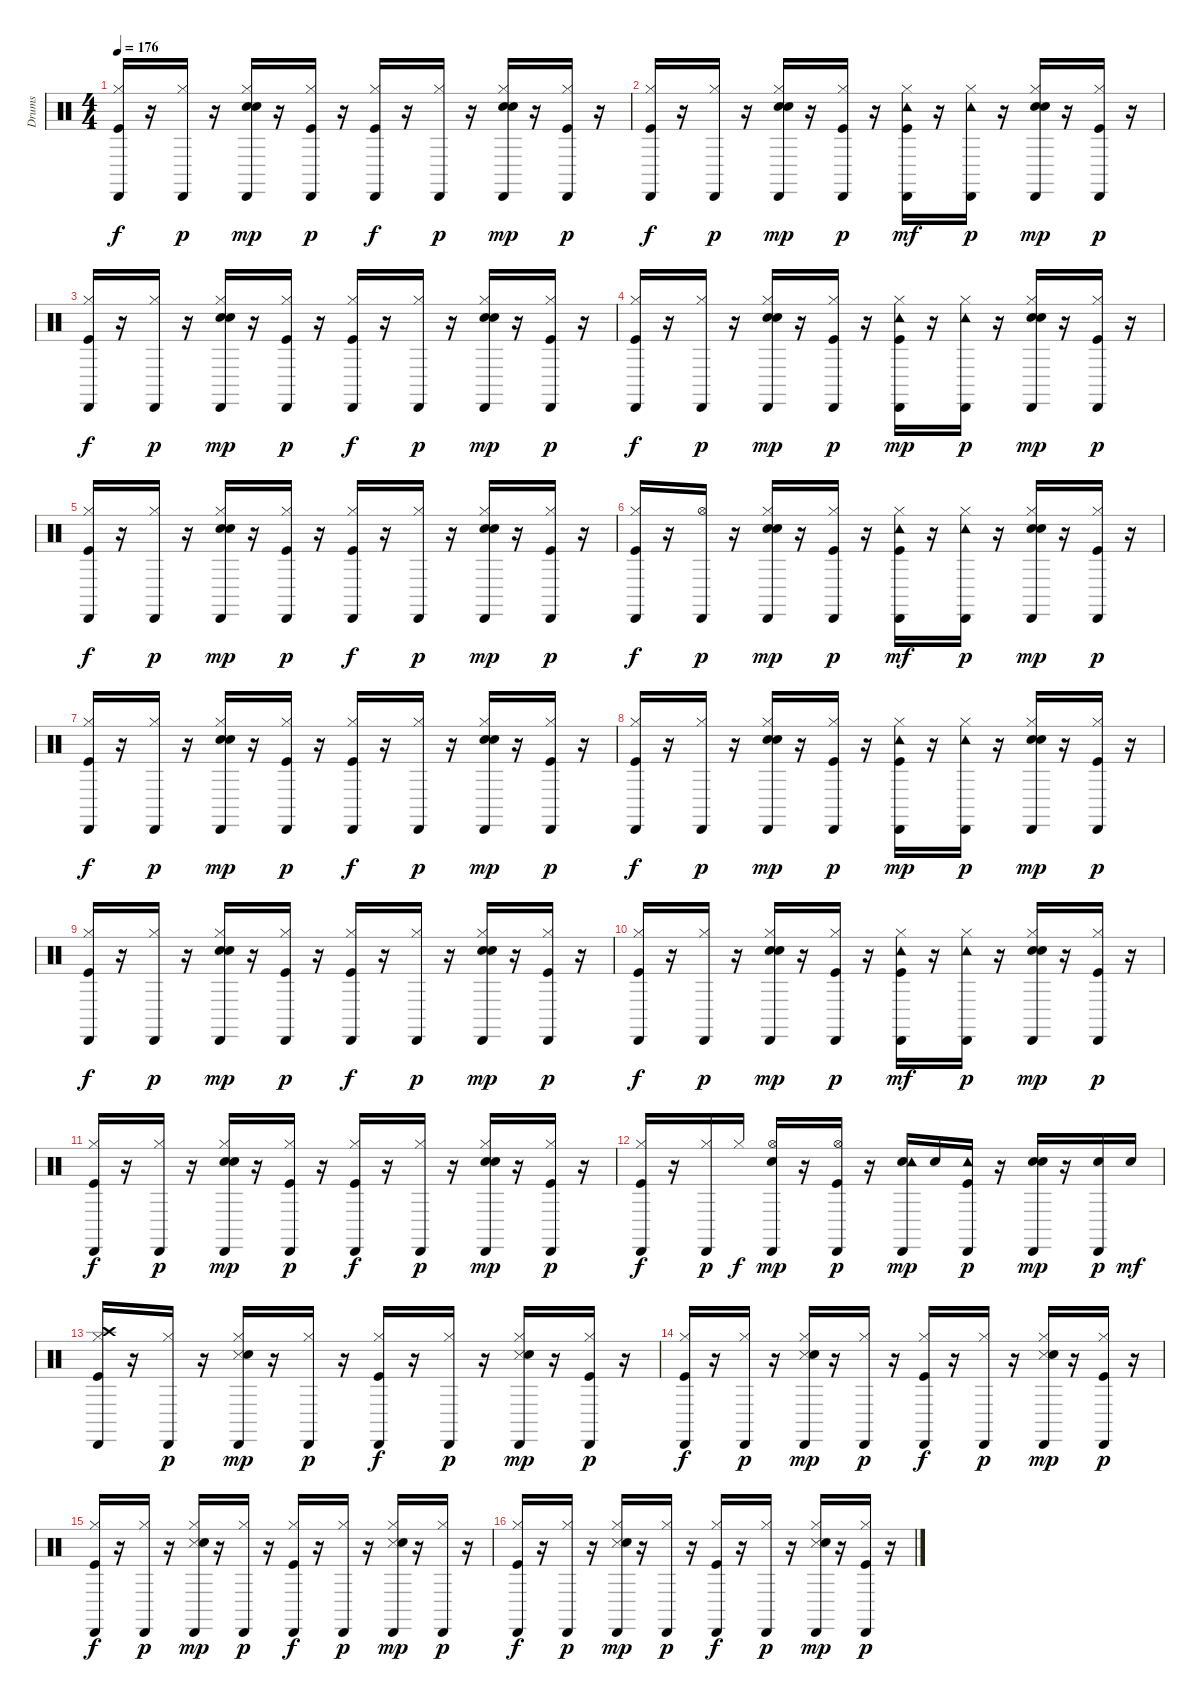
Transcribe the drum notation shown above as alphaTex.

\track ("Drums" "Drums") {instrument percussion}
\staff {score}
\articulation defaults
\ts (4 4)
\tempo 176
\clef neutral
\ks c
("Kick (hit)" "Hi-Hat (closed)" "Cabasa (hit)").16{dy f} r.16 ("Hi-Hat (closed)" "Cabasa (hit)").16{dy p} r.16 ("Snare (hit) 2" "Hi-Hat (closed)" "Hand Clap (hit)" "Cabasa (hit)").16{dy mp} r.16 ("Kick (hit)" "Hi-Hat (closed)" "Cabasa (hit)").16{dy p} r.16 ("Kick (hit)" "Hi-Hat (closed)" "Cabasa (hit)").16{dy f} r.16 ("Hi-Hat (closed)" "Cabasa (hit)").16{dy p} r.16 ("Snare (hit) 2" "Hi-Hat (closed)" "Hand Clap (hit)" "Cabasa (hit)").16{dy mp} r.16 ("Kick (hit)" "Hi-Hat (closed)" "Cabasa (hit)").16{dy p} r.16 |
("Kick (hit)" "Hi-Hat (closed)" "Cabasa (hit)").16{dy f} r.16 ("Hi-Hat (closed)" "Cabasa (hit)").16{dy p} r.16 ("Snare (hit) 2" "Hi-Hat (closed)" "Hand Clap (hit)" "Cabasa (hit)").16{dy mp} r.16 ("Kick (hit)" "Hi-Hat (closed)" "Cabasa (hit)").16{dy p} r.16 ("Kick (hit)" "Hi-Hat (closed)" "Tambourine (hit)" "Cabasa (hit)").16{dy mf} r.16 ("Hi-Hat (closed)" "Tambourine (hit)" "Cabasa (hit)").16{dy p} r.16 ("Snare (hit) 2" "Hi-Hat (closed)" "Hand Clap (hit)" "Cabasa (hit)").16{dy mp} r.16 ("Kick (hit)" "Hi-Hat (closed)" "Cabasa (hit)").16{dy p} r.16 |
("Kick (hit)" "Hi-Hat (closed)" "Cabasa (hit)").16{dy f} r.16 ("Hi-Hat (closed)" "Cabasa (hit)").16{dy p} r.16 ("Snare (hit) 2" "Hi-Hat (closed)" "Hand Clap (hit)" "Cabasa (hit)").16{dy mp} r.16 ("Kick (hit)" "Hi-Hat (closed)" "Cabasa (hit)").16{dy p} r.16 ("Kick (hit)" "Hi-Hat (closed)" "Cabasa (hit)").16{dy f} r.16 ("Hi-Hat (closed)" "Cabasa (hit)").16{dy p} r.16 ("Snare (hit) 2" "Hi-Hat (closed)" "Hand Clap (hit)" "Cabasa (hit)").16{dy mp} r.16 ("Kick (hit)" "Hi-Hat (closed)" "Cabasa (hit)").16{dy p} r.16 |
("Kick (hit)" "Hi-Hat (closed)" "Cabasa (hit)").16{dy f} r.16 ("Hi-Hat (closed)" "Cabasa (hit)").16{dy p} r.16 ("Snare (hit) 2" "Hi-Hat (closed)" "Hand Clap (hit)" "Cabasa (hit)").16{dy mp} r.16 ("Kick (hit)" "Hi-Hat (closed)" "Cabasa (hit)").16{dy p} r.16 ("Kick (hit)" "Hi-Hat (closed)" "Tambourine (hit)" "Cabasa (hit)").16{dy mp} r.16 ("Hi-Hat (closed)" "Tambourine (hit)" "Cabasa (hit)").16{dy p} r.16 ("Snare (hit) 2" "Hi-Hat (closed)" "Hand Clap (hit)" "Cabasa (hit)").16{dy mp} r.16 ("Kick (hit)" "Hi-Hat (closed)" "Cabasa (hit)").16{dy p} r.16 |
("Kick (hit)" "Hi-Hat (closed)" "Cabasa (hit)").16{dy f} r.16 ("Hi-Hat (closed)" "Cabasa (hit)").16{dy p} r.16 ("Snare (hit) 2" "Hi-Hat (closed)" "Hand Clap (hit)" "Cabasa (hit)").16{dy mp} r.16 ("Kick (hit)" "Hi-Hat (closed)" "Cabasa (hit)").16{dy p} r.16 ("Kick (hit)" "Hi-Hat (closed)" "Cabasa (hit)").16{dy f} r.16 ("Hi-Hat (closed)" "Cabasa (hit)").16{dy p} r.16 ("Snare (hit) 2" "Hi-Hat (closed)" "Hand Clap (hit)" "Cabasa (hit)").16{dy mp} r.16 ("Kick (hit)" "Hi-Hat (closed)" "Cabasa (hit)").16{dy p} r.16 |
("Kick (hit)" "Hi-Hat (closed)" "Cabasa (hit)").16{dy f} r.16 ("Hi-Hat (open)" "Cabasa (hit)").16{dy p} r.16 ("Snare (hit) 2" "Hi-Hat (closed)" "Hand Clap (hit)" "Cabasa (hit)").16{dy mp} r.16 ("Kick (hit)" "Hi-Hat (closed)" "Cabasa (hit)").16{dy p} r.16 ("Kick (hit)" "Hi-Hat (closed)" "Tambourine (hit)" "Cabasa (hit)").16{dy mf} r.16 ("Hi-Hat (closed)" "Tambourine (hit)" "Cabasa (hit)").16{dy p} r.16 ("Snare (hit) 2" "Hi-Hat (closed)" "Hand Clap (hit)" "Cabasa (hit)").16{dy mp} r.16 ("Kick (hit)" "Hi-Hat (closed)" "Cabasa (hit)").16{dy p} r.16 |
("Kick (hit)" "Hi-Hat (closed)" "Cabasa (hit)").16{dy f} r.16 ("Hi-Hat (closed)" "Cabasa (hit)").16{dy p} r.16 ("Snare (hit) 2" "Hi-Hat (closed)" "Hand Clap (hit)" "Cabasa (hit)").16{dy mp} r.16 ("Kick (hit)" "Hi-Hat (closed)" "Cabasa (hit)").16{dy p} r.16 ("Kick (hit)" "Hi-Hat (closed)" "Cabasa (hit)").16{dy f} r.16 ("Hi-Hat (closed)" "Cabasa (hit)").16{dy p} r.16 ("Snare (hit) 2" "Hi-Hat (closed)" "Hand Clap (hit)" "Cabasa (hit)").16{dy mp} r.16 ("Kick (hit)" "Hi-Hat (closed)" "Cabasa (hit)").16{dy p} r.16 |
("Kick (hit)" "Hi-Hat (closed)" "Cabasa (hit)").16{dy f} r.16 ("Hi-Hat (closed)" "Cabasa (hit)").16{dy p} r.16 ("Snare (hit) 2" "Hi-Hat (closed)" "Hand Clap (hit)" "Cabasa (hit)").16{dy mp} r.16 ("Kick (hit)" "Hi-Hat (closed)" "Cabasa (hit)").16{dy p} r.16 ("Kick (hit)" "Hi-Hat (closed)" "Tambourine (hit)" "Cabasa (hit)").16{dy mp} r.16 ("Hi-Hat (closed)" "Tambourine (hit)" "Cabasa (hit)").16{dy p} r.16 ("Snare (hit) 2" "Hi-Hat (closed)" "Hand Clap (hit)" "Cabasa (hit)").16{dy mp} r.16 ("Kick (hit)" "Hi-Hat (closed)" "Cabasa (hit)").16{dy p} r.16 |
("Kick (hit)" "Hi-Hat (closed)" "Cabasa (hit)").16{dy f} r.16 ("Hi-Hat (closed)" "Cabasa (hit)").16{dy p} r.16 ("Snare (hit) 2" "Hi-Hat (closed)" "Hand Clap (hit)" "Cabasa (hit)").16{dy mp} r.16 ("Kick (hit)" "Hi-Hat (closed)" "Cabasa (hit)").16{dy p} r.16 ("Kick (hit)" "Hi-Hat (closed)" "Cabasa (hit)").16{dy f} r.16 ("Hi-Hat (closed)" "Cabasa (hit)").16{dy p} r.16 ("Snare (hit) 2" "Hi-Hat (closed)" "Hand Clap (hit)" "Cabasa (hit)").16{dy mp} r.16 ("Kick (hit)" "Hi-Hat (closed)" "Cabasa (hit)").16{dy p} r.16 |
("Kick (hit)" "Hi-Hat (closed)" "Cabasa (hit)").16{dy f} r.16 ("Hi-Hat (closed)" "Cabasa (hit)").16{dy p} r.16 ("Snare (hit) 2" "Hi-Hat (closed)" "Hand Clap (hit)" "Cabasa (hit)").16{dy mp} r.16 ("Kick (hit)" "Hi-Hat (closed)" "Cabasa (hit)").16{dy p} r.16 ("Kick (hit)" "Hi-Hat (closed)" "Tambourine (hit)" "Cabasa (hit)").16{dy mf} r.16 ("Hi-Hat (closed)" "Tambourine (hit)" "Cabasa (hit)").16{dy p} r.16 ("Snare (hit) 2" "Hi-Hat (closed)" "Hand Clap (hit)" "Cabasa (hit)").16{dy mp} r.16 ("Kick (hit)" "Hi-Hat (closed)" "Cabasa (hit)").16{dy p} r.16 |
("Kick (hit)" "Hi-Hat (closed)" "Cabasa (hit)").16{dy f} r.16 ("Hi-Hat (closed)" "Cabasa (hit)").16{dy p} r.16 ("Snare (hit) 2" "Hi-Hat (closed)" "Hand Clap (hit)" "Cabasa (hit)").16{dy mp} r.16 ("Kick (hit)" "Hi-Hat (closed)" "Cabasa (hit)").16{dy p} r.16 ("Kick (hit)" "Hi-Hat (closed)" "Cabasa (hit)").16{dy f} r.16 ("Hi-Hat (closed)" "Cabasa (hit)").16{dy p} r.16 ("Snare (hit) 2" "Hi-Hat (closed)" "Hand Clap (hit)" "Cabasa (hit)").16{dy mp} r.16 ("Kick (hit)" "Hi-Hat (closed)" "Cabasa (hit)").16{dy p} r.16 |
("Kick (hit)" "Hi-Hat (closed)" "Cabasa (hit)").16{dy f} r.16 ("Hi-Hat (closed)" "Cabasa (hit)").16{dy p} "Hi-Hat (closed)".16{dy f} ("Hi-Hat (open)" "Hand Clap (hit)" "Cabasa (hit)").16{dy mp} r.16 ("Kick (hit)" "Hi-Hat (open)" "Cabasa (hit)").16{dy p} r.16 ("Snare (hit) 2" "Tambourine (hit)" "Cabasa (hit)").16{dy mp} "Snare (hit) 2".16 ("Kick (hit)" "Tambourine (hit)" "Cabasa (hit)").16{dy p} r.16 ("Snare (hit) 2" "Hand Clap (hit)" "Cabasa (hit)").16{dy mp} r.16 ("Snare (hit) 2" "Cabasa (hit)").16{dy p} "Snare (hit) 2".16{dy mf} |
("Kick (hit)" "Hi-Hat (closed)" "Crash high (hit)" "Cabasa (hit)").16 r.16 ("Hi-Hat (closed)" "Cabasa (hit)").16{dy p} r.16 ("Hi-Hat (closed)" "Snare (side stick) 3" "Hand Clap (hit)" "Cabasa (hit)").16{dy mp} r.16 ("Hi-Hat (closed)" "Cabasa (hit)").16{dy p} r.16 ("Kick (hit)" "Hi-Hat (closed)" "Cabasa (hit)").16{dy f} r.16 ("Hi-Hat (closed)" "Cabasa (hit)").16{dy p} r.16 ("Hi-Hat (closed)" "Snare (side stick) 3" "Hand Clap (hit)" "Cabasa (hit)").16{dy mp} r.16 ("Kick (hit)" "Hi-Hat (closed)" "Cabasa (hit)").16{dy p} r.16 |
("Kick (hit)" "Hi-Hat (closed)" "Cabasa (hit)").16{dy f} r.16 ("Hi-Hat (closed)" "Cabasa (hit)").16{dy p} r.16 ("Hi-Hat (closed)" "Snare (side stick) 3" "Hand Clap (hit)" "Cabasa (hit)").16{dy mp} r.16 ("Hi-Hat (closed)" "Cabasa (hit)").16{dy p} r.16 ("Kick (hit)" "Hi-Hat (closed)" "Cabasa (hit)").16{dy f} r.16 ("Hi-Hat (closed)" "Cabasa (hit)").16{dy p} r.16 ("Hi-Hat (closed)" "Snare (side stick) 3" "Hand Clap (hit)" "Cabasa (hit)").16{dy mp} r.16 ("Kick (hit)" "Hi-Hat (closed)" "Cabasa (hit)").16{dy p} r.16 |
("Kick (hit)" "Hi-Hat (closed)" "Cabasa (hit)").16{dy f} r.16 ("Hi-Hat (closed)" "Cabasa (hit)").16{dy p} r.16 ("Hi-Hat (closed)" "Snare (side stick) 3" "Hand Clap (hit)" "Cabasa (hit)").16{dy mp} r.16 ("Hi-Hat (closed)" "Cabasa (hit)").16{dy p} r.16 ("Kick (hit)" "Hi-Hat (closed)" "Cabasa (hit)").16{dy f} r.16 ("Hi-Hat (closed)" "Cabasa (hit)").16{dy p} r.16 ("Hi-Hat (closed)" "Snare (side stick) 3" "Hand Clap (hit)" "Cabasa (hit)").16{dy mp} r.16 ("Hi-Hat (closed)" "Cabasa (hit)").16{dy p} r.16 |
("Kick (hit)" "Hi-Hat (closed)" "Cabasa (hit)").16{dy f} r.16 ("Hi-Hat (closed)" "Cabasa (hit)").16{dy p} r.16 ("Hi-Hat (closed)" "Snare (side stick) 3" "Hand Clap (hit)" "Cabasa (hit)").16{dy mp} r.16 ("Hi-Hat (closed)" "Cabasa (hit)").16{dy p} r.16 ("Kick (hit)" "Hi-Hat (closed)" "Cabasa (hit)").16{dy f} r.16 ("Hi-Hat (closed)" "Cabasa (hit)").16{dy p} r.16 ("Hi-Hat (closed)" "Snare (side stick) 3" "Hand Clap (hit)" "Cabasa (hit)").16{dy mp} r.16 ("Kick (hit)" "Hi-Hat (closed)" "Cabasa (hit)").16{dy p} r.16
